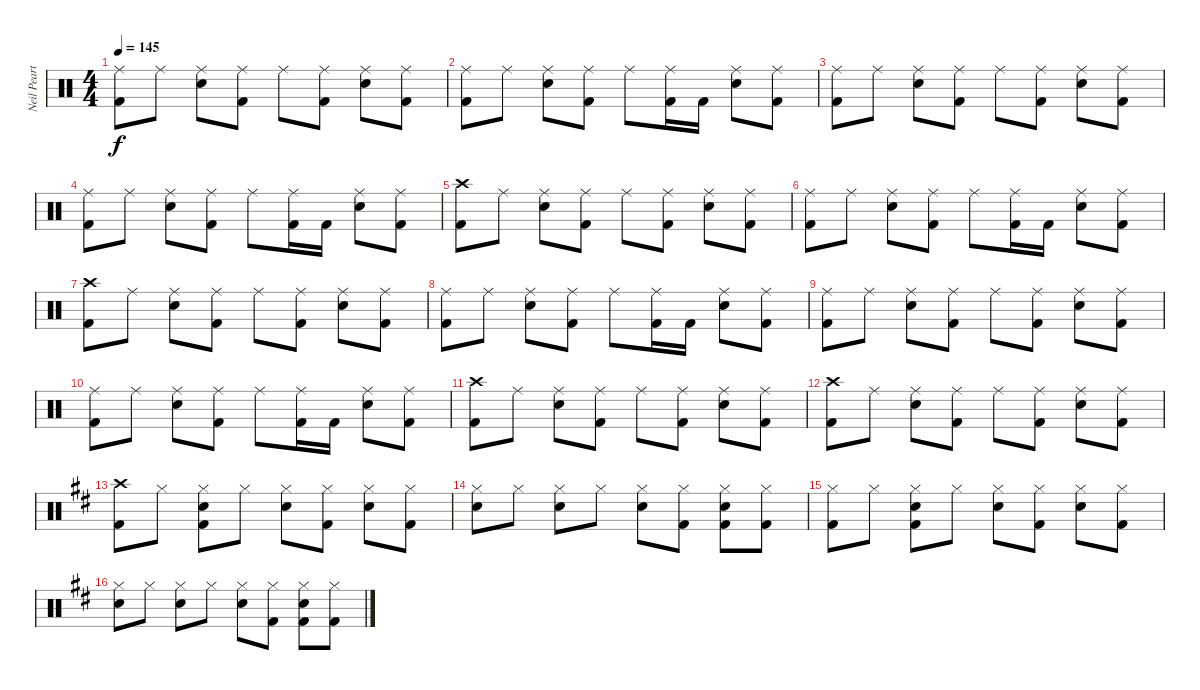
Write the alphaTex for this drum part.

\track ("Neil Peart" "Neil Peart") {instrument percussion}
\staff {score}
\articulation defaults
\ts (4 4)
\tempo 145
\clef neutral
\ks c
("Ride (middle)" "Kick (hit) 2").8{dy f} "Ride (middle)".8 ("Ride (middle)" "Snare (hit) 2").8 ("Ride (middle)" "Kick (hit) 2").8 "Ride (middle)".8 ("Ride (middle)" "Kick (hit) 2").8 ("Ride (middle)" "Snare (hit) 2").8 ("Ride (middle)" "Kick (hit) 2").8 |
("Ride (middle)" "Kick (hit) 2").8 "Ride (middle)".8 ("Ride (middle)" "Snare (hit) 2").8 ("Ride (middle)" "Kick (hit) 2").8 "Ride (middle)".8 ("Ride (middle)" "Kick (hit) 2").16 "Kick (hit) 2".16 ("Ride (middle)" "Snare (hit) 2").8 ("Ride (middle)" "Kick (hit) 2").8 |
("Ride (middle)" "Kick (hit) 2").8 "Ride (middle)".8 ("Ride (middle)" "Snare (hit) 2").8 ("Ride (middle)" "Kick (hit) 2").8 "Ride (middle)".8 ("Ride (middle)" "Kick (hit) 2").8 ("Ride (middle)" "Snare (hit) 2").8 ("Ride (middle)" "Kick (hit) 2").8 |
("Ride (middle)" "Kick (hit) 2").8 "Ride (middle)".8 ("Ride (middle)" "Snare (hit) 2").8 ("Ride (middle)" "Kick (hit) 2").8 "Ride (middle)".8 ("Ride (middle)" "Kick (hit) 2").16 "Kick (hit) 2".16 ("Ride (middle)" "Snare (hit) 2").8 ("Ride (middle)" "Kick (hit) 2").8 |
("Crash high (hit)" "Kick (hit) 2").8 "Ride (middle)".8 ("Ride (middle)" "Snare (hit) 2").8 ("Ride (middle)" "Kick (hit) 2").8 "Ride (middle)".8 ("Ride (middle)" "Kick (hit) 2").8 ("Ride (middle)" "Snare (hit) 2").8 ("Ride (middle)" "Kick (hit) 2").8 |
("Ride (middle)" "Kick (hit) 2").8 "Ride (middle)".8 ("Ride (middle)" "Snare (hit) 2").8 ("Ride (middle)" "Kick (hit) 2").8 "Ride (middle)".8 ("Ride (middle)" "Kick (hit) 2").16 "Kick (hit) 2".16 ("Ride (middle)" "Snare (hit) 2").8 ("Ride (middle)" "Kick (hit) 2").8 |
("Crash high (hit)" "Kick (hit) 2").8 "Ride (middle)".8 ("Ride (middle)" "Snare (hit) 2").8 ("Ride (middle)" "Kick (hit) 2").8 "Ride (middle)".8 ("Ride (middle)" "Kick (hit) 2").8 ("Ride (middle)" "Snare (hit) 2").8 ("Ride (middle)" "Kick (hit) 2").8 |
("Ride (middle)" "Kick (hit) 2").8 "Ride (middle)".8 ("Ride (middle)" "Snare (hit) 2").8 ("Ride (middle)" "Kick (hit) 2").8 "Ride (middle)".8 ("Ride (middle)" "Kick (hit) 2").16 "Kick (hit) 2".16 ("Ride (middle)" "Snare (hit) 2").8 ("Ride (middle)" "Kick (hit) 2").8 |
("Ride (middle)" "Kick (hit) 2").8 "Ride (middle)".8 ("Ride (middle)" "Snare (hit) 2").8 ("Ride (middle)" "Kick (hit) 2").8 "Ride (middle)".8 ("Ride (middle)" "Kick (hit) 2").8 ("Ride (middle)" "Snare (hit) 2").8 ("Ride (middle)" "Kick (hit) 2").8 |
("Ride (middle)" "Kick (hit) 2").8 "Ride (middle)".8 ("Ride (middle)" "Snare (hit) 2").8 ("Ride (middle)" "Kick (hit) 2").8 "Ride (middle)".8 ("Ride (middle)" "Kick (hit) 2").16 "Kick (hit) 2".16 ("Ride (middle)" "Snare (hit) 2").8 ("Ride (middle)" "Kick (hit) 2").8 |
("Crash high (hit)" "Kick (hit) 2").8 "Ride (middle)".8 ("Ride (middle)" "Snare (hit) 2").8 ("Ride (middle)" "Kick (hit) 2").8 "Ride (middle)".8 ("Ride (middle)" "Kick (hit) 2").8 ("Ride (middle)" "Snare (hit) 2").8 ("Ride (middle)" "Kick (hit) 2").8 |
("Crash high (hit)" "Kick (hit) 2").8 "Ride (middle)".8 ("Ride (middle)" "Snare (hit) 2").8 ("Ride (middle)" "Kick (hit) 2").8 "Ride (middle)".8 ("Ride (middle)" "Kick (hit) 2").8 ("Ride (middle)" "Snare (hit) 2").8 ("Ride (middle)" "Kick (hit) 2").8 |
\ks d
("Crash high (hit)" "Kick (hit) 2").8 "Hi-Hat (closed)".8 ("Hi-Hat (closed)" "Snare (hit) 2" "Kick (hit) 2").8 "Hi-Hat (closed)".8 ("Hi-Hat (closed)" "Snare (hit) 2").8 ("Hi-Hat (closed)" "Kick (hit) 2").8 ("Hi-Hat (closed)" "Snare (hit) 2").8 ("Hi-Hat (closed)" "Kick (hit) 2").8 |
("Hi-Hat (closed)" "Snare (hit) 2").8 "Hi-Hat (closed)".8 ("Hi-Hat (closed)" "Snare (hit) 2").8 "Hi-Hat (closed)".8 ("Hi-Hat (closed)" "Snare (hit) 2").8 ("Hi-Hat (closed)" "Kick (hit) 2").8 ("Hi-Hat (closed)" "Snare (hit) 2" "Kick (hit) 2").8 ("Hi-Hat (closed)" "Kick (hit) 2").8 |
("Hi-Hat (closed)" "Kick (hit) 2").8 "Hi-Hat (closed)".8 ("Hi-Hat (closed)" "Snare (hit) 2" "Kick (hit) 2").8 "Hi-Hat (closed)".8 ("Hi-Hat (closed)" "Snare (hit) 2").8 ("Hi-Hat (closed)" "Kick (hit) 2").8 ("Hi-Hat (closed)" "Snare (hit) 2").8 ("Hi-Hat (closed)" "Kick (hit) 2").8 |
("Hi-Hat (closed)" "Snare (hit) 2").8 "Hi-Hat (closed)".8 ("Hi-Hat (closed)" "Snare (hit) 2").8 "Hi-Hat (closed)".8 ("Hi-Hat (closed)" "Snare (hit) 2").8 ("Hi-Hat (closed)" "Kick (hit) 2").8 ("Hi-Hat (closed)" "Snare (hit) 2" "Kick (hit) 2").8 ("Hi-Hat (closed)" "Kick (hit) 2").8
